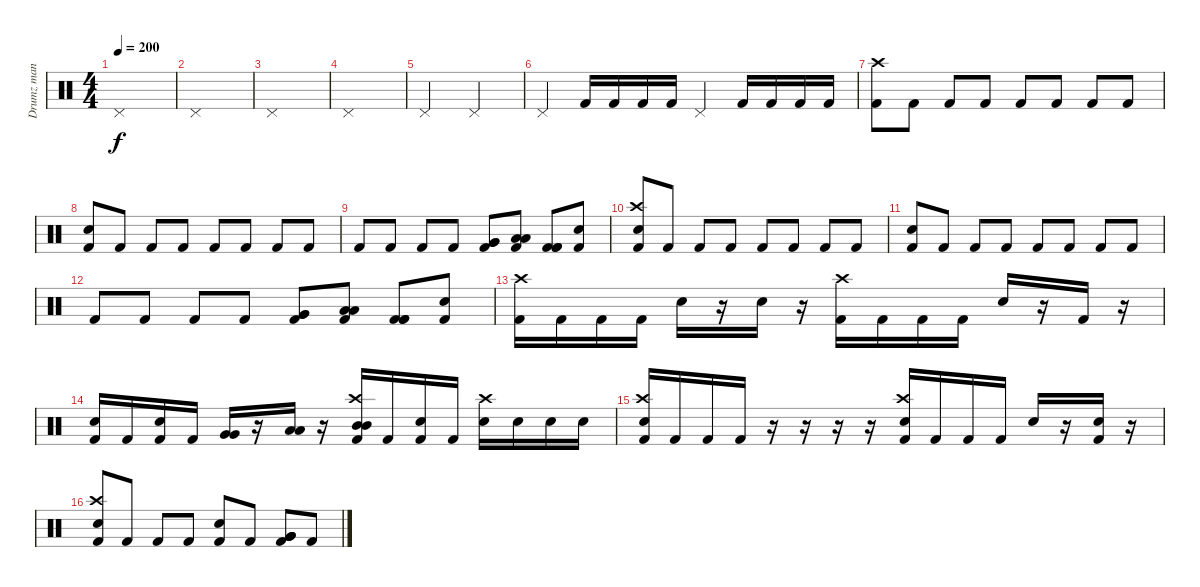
\track ("Drumz man" "Drumz man") {instrument percussion}
\staff {score}
\articulation defaults
\ts (4 4)
\tempo 200
\clef neutral
\ks c "Pedal Hi-Hat (hit)".1{dy f}
|
"Pedal Hi-Hat (hit)".1 |
"Pedal Hi-Hat (hit)".1 |
"Pedal Hi-Hat (hit)".1 |
"Pedal Hi-Hat (hit)".2 "Pedal Hi-Hat (hit)".2 |
"Pedal Hi-Hat (hit)".4 "Kick (hit) 2".16 "Kick (hit) 2".16 "Kick (hit) 2".16 "Kick (hit) 2".16 "Pedal Hi-Hat (hit)".4 "Kick (hit) 2".16 "Kick (hit) 2".16 "Kick (hit) 2".16 "Kick (hit) 2".16 |
("Crash high (hit)" "Kick (hit) 2").8 "Kick (hit) 2".8 "Kick (hit) 2".8 "Kick (hit) 2".8 "Kick (hit) 2".8 "Kick (hit) 2".8 "Kick (hit) 2".8 "Kick (hit) 2".8 |
("Kick (hit) 2" "Snare (hit) 2").8 "Kick (hit) 2".8 "Kick (hit) 2".8 "Kick (hit) 2".8 "Kick (hit) 2".8 "Kick (hit) 2".8 "Kick (hit) 2".8 "Kick (hit) 2".8 |
"Kick (hit) 2".8 "Kick (hit) 2".8 "Kick (hit) 2".8 "Kick (hit) 2".8 ("Kick (hit) 2" "Very Low Tom (hit)" "Very Low Tom (hit)").8 ("Kick (hit) 2" "Low Floor Tom (hit)" "Low Floor Tom (hit)").8 ("Kick (hit) 2" "Kick (hit) 2" "Kick (hit) 2").8 ("Kick (hit) 2" "Electric Snare (hit)").8 |
("Crash high (hit)" "Kick (hit) 2" "Snare (hit) 2").8 "Kick (hit) 2".8 "Kick (hit) 2".8 "Kick (hit) 2".8 "Kick (hit) 2".8 "Kick (hit) 2".8 "Kick (hit) 2".8 "Kick (hit) 2".8 |
("Kick (hit) 2" "Snare (hit) 2").8 "Kick (hit) 2".8 "Kick (hit) 2".8 "Kick (hit) 2".8 "Kick (hit) 2".8 "Kick (hit) 2".8 "Kick (hit) 2".8 "Kick (hit) 2".8 |
"Kick (hit) 2".8 "Kick (hit) 2".8 "Kick (hit) 2".8 "Kick (hit) 2".8 ("Kick (hit) 2" "Very Low Tom (hit)" "Very Low Tom (hit)").8 ("Kick (hit) 2" "Low Floor Tom (hit)" "Low Floor Tom (hit)").8 ("Kick (hit) 2" "Kick (hit) 2" "Kick (hit) 2").8 ("Kick (hit) 2" "Electric Snare (hit)").8 |
("Crash high (hit)" "Kick (hit) 2").16 "Kick (hit) 2".16 "Kick (hit) 2".16 "Kick (hit) 2".16 "Electric Snare (hit)".16 r.16 "Electric Snare (hit)".16 r.16 ("Crash high (hit)" "Kick (hit) 2").16 "Kick (hit) 2".16 "Kick (hit) 2".16 "Kick (hit) 2".16 "Electric Snare (hit)".16 r.16 "Kick (hit) 2".16 r.16 |
("Kick (hit) 2" "Electric Snare (hit)").16 "Kick (hit) 2".16 ("Kick (hit) 2" "Electric Snare (hit)").16 "Kick (hit) 2".16 ("Very Low Tom (hit)" "Very Low Tom (hit)").16 r.16 ("Low Floor Tom (hit)" "Low Floor Tom (hit)").16 r.16 ("Crash high (hit)" "Kick (hit) 2" "Mid Tom (hit)" "Mid Tom (hit)").16 "Kick (hit) 2".16 ("Kick (hit) 2" "Electric Snare (hit)").16 "Kick (hit) 2".16 ("Crash high (hit)" "Electric Snare (hit)").16 "Electric Snare (hit)".16 "Electric Snare (hit)".16 "Electric Snare (hit)".16 |
("Crash high (hit)" "Kick (hit) 2" "Snare (hit) 2").16 "Kick (hit) 2".16 "Kick (hit) 2".16 "Kick (hit) 2".16 r.16 r.16 r.16 r.16 ("Crash high (hit)" "Kick (hit) 2" "Snare (hit) 2").16 "Kick (hit) 2".16 "Kick (hit) 2".16 "Kick (hit) 2".16 "Snare (hit) 2".16 r.16 ("Kick (hit) 2" "Snare (hit) 2").16 r.16 |
("Crash high (hit)" "Kick (hit) 2" "Electric Snare (hit)").8 "Kick (hit) 2".8 "Kick (hit) 2".8 "Kick (hit) 2".8 ("Kick (hit) 2" "Electric Snare (hit)").8 "Kick (hit) 2".8 ("Kick (hit) 2" "Very Low Tom (hit)" "Very Low Tom (hit)" "Very Low Tom (hit)").8 "Kick (hit) 2".8
